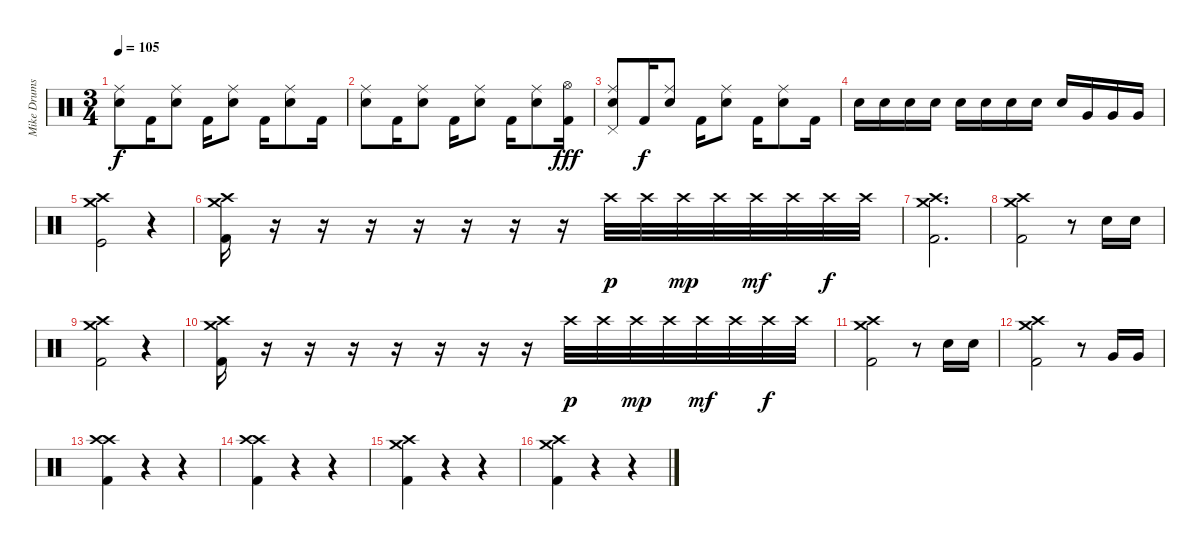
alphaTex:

\track ("Mike Drums" "Mike Drums") {instrument percussion}
\staff {score}
\articulation defaults
\ts (3 4)
\tempo 105
\clef neutral
\ks c
("Ride (middle)" "Electric Snare (hit)").8{dy f} "Kick (hit) 2".16 ("Ride (middle)" "Electric Snare (hit)").8 "Kick (hit) 2".16 ("Ride (middle)" "Electric Snare (hit)").8 "Kick (hit) 2".16 ("Ride (middle)" "Electric Snare (hit)").8 "Kick (hit) 2".16 |
("Ride (middle)" "Electric Snare (hit)").8 "Kick (hit) 2".16 ("Ride (middle)" "Electric Snare (hit)").8 "Kick (hit) 2".16 ("Ride (middle)" "Electric Snare (hit)").8 "Kick (hit) 2".16 ("Ride (middle)" "Electric Snare (hit)").8 ("Hi-Hat (open)" "Kick (hit) 2").16{dy fff} |
("Ride (middle)" "Pedal Hi-Hat (hit)" "Electric Snare (hit)").8 "Kick (hit) 2".16{dy f} ("Ride (middle)" "Electric Snare (hit)").8 "Kick (hit) 2".16 ("Ride (middle)" "Electric Snare (hit)").8 "Kick (hit) 2".16 ("Ride (middle)" "Electric Snare (hit)").8 "Kick (hit) 2".16 |
"Electric Snare (hit)".16 "Electric Snare (hit)".16 "Electric Snare (hit)".16 "Electric Snare (hit)".16 "Electric Snare (hit)".16 "Electric Snare (hit)".16 "Electric Snare (hit)".16 "Electric Snare (hit)".16 "Electric Snare (hit)".16 "Very Low Tom (hit)".16 "Very Low Tom (hit)".16 "Very Low Tom (hit)".16 |
("Crash high (hit)" "Kick (hit)" "Crash medium (hit)").2 r.4 |
("Crash high (hit)" "Kick (hit) 2" "Crash medium (hit)").16 r.16 r.16 r.16 r.16 r.16 r.16 r.16 "Crash high (hit)".32{dy p} "Crash high (hit)".32 "Crash high (hit)".32{dy mp} "Crash high (hit)".32 "Crash high (hit)".32{dy mf} "Crash high (hit)".32 "Crash high (hit)".32{dy f} "Crash high (hit)".32 |
("Crash high (hit)" "Kick (hit) 2" "Crash medium (hit)").2{d} |
("Crash high (hit)" "Kick (hit) 2" "Crash medium (hit)").2 r.8 "Electric Snare (hit)".16 "Electric Snare (hit)".16 |
("Crash high (hit)" "Kick (hit) 2" "Crash medium (hit)").2 r.4 |
("Crash high (hit)" "Kick (hit) 2" "Crash medium (hit)").16 r.16 r.16 r.16 r.16 r.16 r.16 r.16 "Crash high (hit)".32{dy p} "Crash high (hit)".32 "Crash high (hit)".32{dy mp} "Crash high (hit)".32 "Crash high (hit)".32{dy mf} "Crash high (hit)".32 "Crash high (hit)".32{dy f} "Crash high (hit)".32 |
("Crash high (hit)" "Kick (hit) 2" "Crash medium (hit)").2 r.8 "Electric Snare (hit)".16 "Electric Snare (hit)".16 |
("Crash high (hit)" "Kick (hit) 2" "Crash medium (hit)").2 r.8 "Very Low Tom (hit)".16 "Very Low Tom (hit)".16 |
("Crash high (hit)" "Crash high (hit)" "Kick (hit) 2").4 r.4 r.4 |
("Crash high (hit)" "Crash high (hit)" "Kick (hit) 2").4 r.4 r.4 |
("Crash high (hit)" "Crash medium (hit)" "Kick (hit) 2").4 r.4 r.4 |
("Crash high (hit)" "Crash medium (hit)" "Kick (hit) 2").4 r.4 r.4
